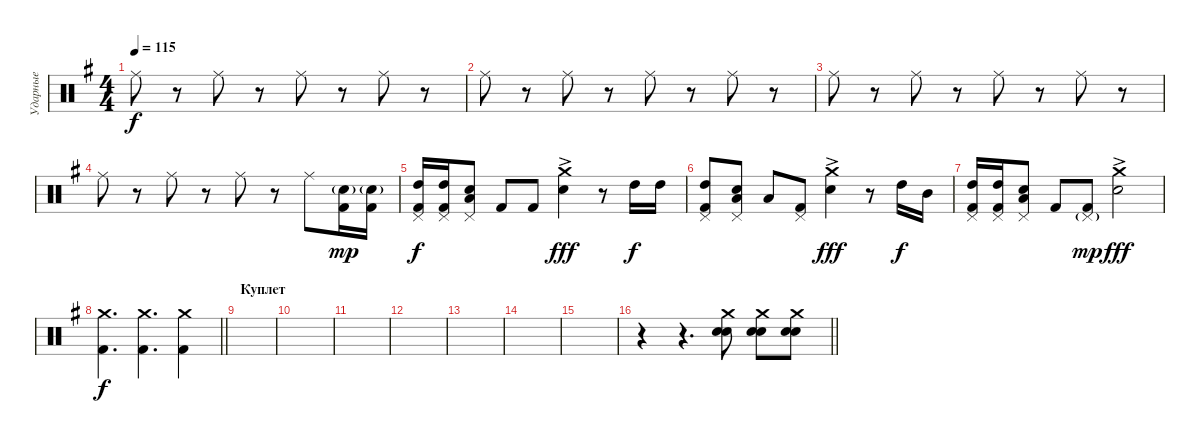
\track ("Ударные" "Ударные") {instrument percussion}
\staff {score}
\articulation defaults
\ts (4 4)
\tempo 115
\clef neutral
\ks g "Ride (middle)".8{dy f}
r.8 "Ride (middle)".8 r.8 "Ride (middle)".8 r.8 "Ride (middle)".8 r.8 |
"Ride (middle)".8 r.8 "Ride (middle)".8 r.8 "Ride (middle)".8 r.8 "Ride (middle)".8 r.8 |
"Ride (middle)".8 r.8 "Ride (middle)".8 r.8 "Ride (middle)".8 r.8 "Ride (middle)".8 r.8 |
"Ride (middle)".8 r.8 "Ride (middle)".8 r.8 "Ride (middle)".8 r.8 "Ride (middle)".8 ("Electric Snare (hit)"{g} "Kick (hit) 2").16{dy mp} ("Electric Snare (hit)"{g} "Kick (hit) 2").16 |
("Pedal Hi-Hat (hit)" "Kick (hit) 2" "High Tom (hit)").16{dy f} ("Pedal Hi-Hat (hit)" "Kick (hit) 2" "High Tom (hit)").16 ("Pedal Hi-Hat (hit)" "Snare (hit) 2" "Low Tom (hit)").8 "Kick (hit) 2".8 "Kick (hit) 2".8 ("Crash medium (hit)"{ac} "Snare (hit) 2").4{dy fff} r.8 "High Tom (hit)".16{dy f} "High Tom (hit)".16 |
("Pedal Hi-Hat (hit)" "Kick (hit) 2" "High Tom (hit)").8 ("Pedal Hi-Hat (hit)" "Snare (hit) 2" "Low Tom (hit)").8 "Low Tom (hit)".8 ("Pedal Hi-Hat (hit)" "Kick (hit) 2").8 ("Crash medium (hit)"{ac} "Snare (hit) 2").4{dy fff} r.8 "High Tom (hit)".16{dy f} "Mid Tom (hit)".16 |
("Pedal Hi-Hat (hit)" "Kick (hit) 2" "High Tom (hit)").16 ("Pedal Hi-Hat (hit)" "Kick (hit) 2" "High Tom (hit)").16 ("Pedal Hi-Hat (hit)" "Snare (hit) 2" "Low Tom (hit)").8 "Kick (hit) 2".8 ("Pedal Hi-Hat (hit)"{g} "Kick (hit) 2").8{dy mp} ("Crash medium (hit)"{ac} "Snare (hit) 2").2{dy fff} |
\barLineRight lightlight
("Crash medium (hit)" "Kick (hit) 2").4{d dy f} ("Crash medium (hit)" "Kick (hit) 2").4{d} ("Crash medium (hit)" "Kick (hit) 2").4 |
\section ("" "Куплет")
|
|
|
|
|
|
|
\barLineRight lightlight
r.4 r.4{d} ("Crash medium (hit)" "Electric Snare (hit)" "Snare (hit) 2").8 ("Crash medium (hit)" "Electric Snare (hit)" "Snare (hit) 2").8 ("Crash medium (hit)" "Electric Snare (hit)" "Snare (hit) 2").8
